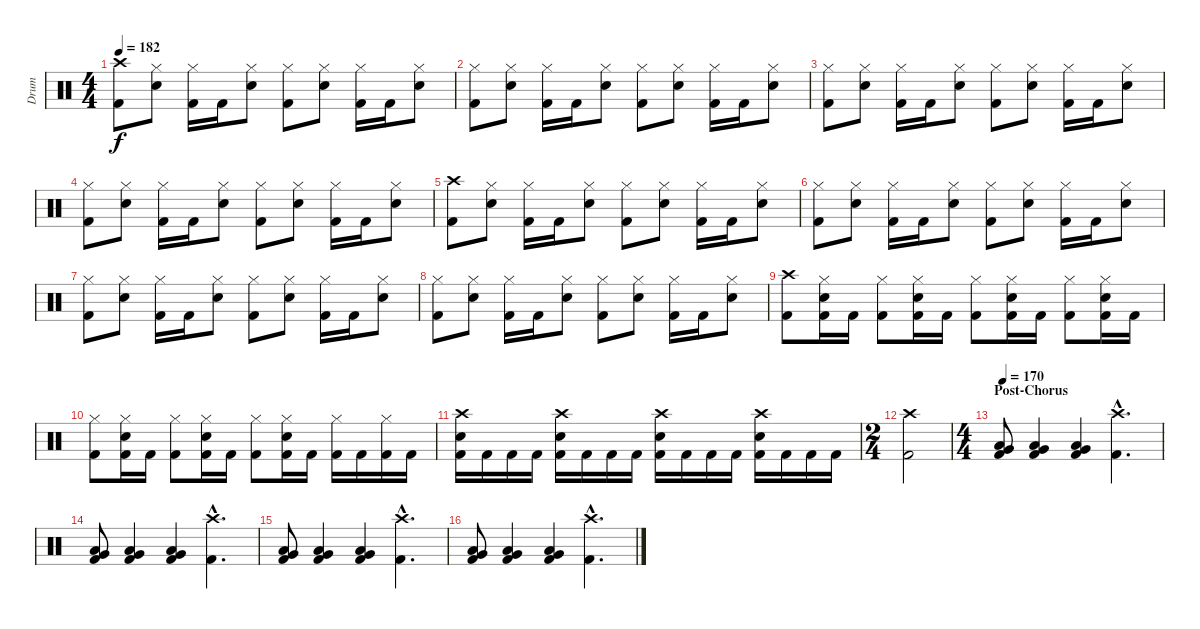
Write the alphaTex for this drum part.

\track ("Drum" "Drum") {instrument percussion}
\staff {score}
\articulation defaults
\ts (4 4)
\tempo 182
\clef neutral
\ks c
("Crash high (hit)" "Kick (hit) 2").8{dy f} ("Hi-Hat (closed)" "Electric Snare (hit)").8 ("Hi-Hat (closed)" "Kick (hit) 2").16 "Kick (hit) 2".16 ("Hi-Hat (closed)" "Electric Snare (hit)").8 ("Hi-Hat (closed)" "Kick (hit) 2").8 ("Hi-Hat (closed)" "Electric Snare (hit)").8 ("Hi-Hat (closed)" "Kick (hit) 2").16 "Kick (hit) 2".16 ("Hi-Hat (closed)" "Electric Snare (hit)").8 |
("Hi-Hat (closed)" "Kick (hit) 2").8 ("Hi-Hat (closed)" "Electric Snare (hit)").8 ("Hi-Hat (closed)" "Kick (hit) 2").16 "Kick (hit) 2".16 ("Hi-Hat (closed)" "Electric Snare (hit)").8 ("Hi-Hat (closed)" "Kick (hit) 2").8 ("Hi-Hat (closed)" "Electric Snare (hit)").8 ("Hi-Hat (closed)" "Kick (hit) 2").16 "Kick (hit) 2".16 ("Hi-Hat (closed)" "Electric Snare (hit)").8 |
("Hi-Hat (closed)" "Kick (hit) 2").8 ("Hi-Hat (closed)" "Electric Snare (hit)").8 ("Hi-Hat (closed)" "Kick (hit) 2").16 "Kick (hit) 2".16 ("Hi-Hat (closed)" "Electric Snare (hit)").8 ("Hi-Hat (closed)" "Kick (hit) 2").8 ("Hi-Hat (closed)" "Electric Snare (hit)").8 ("Hi-Hat (closed)" "Kick (hit) 2").16 "Kick (hit) 2".16 ("Hi-Hat (closed)" "Electric Snare (hit)").8 |
("Hi-Hat (closed)" "Kick (hit) 2").8 ("Hi-Hat (closed)" "Electric Snare (hit)").8 ("Hi-Hat (closed)" "Kick (hit) 2").16 "Kick (hit) 2".16 ("Hi-Hat (closed)" "Electric Snare (hit)").8 ("Hi-Hat (closed)" "Kick (hit) 2").8 ("Hi-Hat (closed)" "Electric Snare (hit)").8 ("Hi-Hat (closed)" "Kick (hit) 2").16 "Kick (hit) 2".16 ("Hi-Hat (closed)" "Electric Snare (hit)").8 |
("Crash high (hit)" "Kick (hit) 2").8 ("Hi-Hat (closed)" "Electric Snare (hit)").8 ("Hi-Hat (closed)" "Kick (hit) 2").16 "Kick (hit) 2".16 ("Hi-Hat (closed)" "Electric Snare (hit)").8 ("Hi-Hat (closed)" "Kick (hit) 2").8 ("Hi-Hat (closed)" "Electric Snare (hit)").8 ("Hi-Hat (closed)" "Kick (hit) 2").16 "Kick (hit) 2".16 ("Hi-Hat (closed)" "Electric Snare (hit)").8 |
("Hi-Hat (closed)" "Kick (hit) 2").8 ("Hi-Hat (closed)" "Electric Snare (hit)").8 ("Hi-Hat (closed)" "Kick (hit) 2").16 "Kick (hit) 2".16 ("Hi-Hat (closed)" "Electric Snare (hit)").8 ("Hi-Hat (closed)" "Kick (hit) 2").8 ("Hi-Hat (closed)" "Electric Snare (hit)").8 ("Hi-Hat (closed)" "Kick (hit) 2").16 "Kick (hit) 2".16 ("Hi-Hat (closed)" "Electric Snare (hit)").8 |
("Hi-Hat (closed)" "Kick (hit) 2").8 ("Hi-Hat (closed)" "Electric Snare (hit)").8 ("Hi-Hat (closed)" "Kick (hit) 2").16 "Kick (hit) 2".16 ("Hi-Hat (closed)" "Electric Snare (hit)").8 ("Hi-Hat (closed)" "Kick (hit) 2").8 ("Hi-Hat (closed)" "Electric Snare (hit)").8 ("Hi-Hat (closed)" "Kick (hit) 2").16 "Kick (hit) 2".16 ("Hi-Hat (closed)" "Electric Snare (hit)").8 |
("Hi-Hat (closed)" "Kick (hit) 2").8 ("Hi-Hat (closed)" "Electric Snare (hit)").8 ("Hi-Hat (closed)" "Kick (hit) 2").16 "Kick (hit) 2".16 ("Hi-Hat (closed)" "Electric Snare (hit)").8 ("Hi-Hat (closed)" "Kick (hit) 2").8 ("Hi-Hat (closed)" "Electric Snare (hit)").8 ("Hi-Hat (closed)" "Kick (hit) 2").16 "Kick (hit) 2".16 ("Hi-Hat (closed)" "Electric Snare (hit)").8 |
("Crash high (hit)" "Kick (hit) 2").8 ("Hi-Hat (closed)" "Electric Snare (hit)" "Kick (hit) 2").16 "Kick (hit) 2".16 ("Hi-Hat (closed)" "Kick (hit) 2").8 ("Hi-Hat (closed)" "Electric Snare (hit)" "Kick (hit) 2").16 "Kick (hit) 2".16 ("Hi-Hat (closed)" "Kick (hit) 2").8 ("Hi-Hat (closed)" "Electric Snare (hit)" "Kick (hit) 2").16 "Kick (hit) 2".16 ("Hi-Hat (closed)" "Kick (hit) 2").8 ("Hi-Hat (closed)" "Electric Snare (hit)" "Kick (hit) 2").16 "Kick (hit) 2".16 |
("Hi-Hat (closed)" "Kick (hit) 2").8 ("Hi-Hat (closed)" "Electric Snare (hit)" "Kick (hit) 2").16 "Kick (hit) 2".16 ("Hi-Hat (closed)" "Kick (hit) 2").8 ("Hi-Hat (closed)" "Electric Snare (hit)" "Kick (hit) 2").16 "Kick (hit) 2".16 ("Hi-Hat (closed)" "Kick (hit) 2").8 ("Hi-Hat (closed)" "Electric Snare (hit)" "Kick (hit) 2").16 "Kick (hit) 2".16 ("Hi-Hat (closed)" "Kick (hit) 2").16 "Kick (hit) 2".16 ("Hi-Hat (closed)" "Kick (hit) 2").16 "Kick (hit) 2".16 |
("Crash high (hit)" "Electric Snare (hit)" "Kick (hit) 2").16 "Kick (hit) 2".16 "Kick (hit) 2".16 "Kick (hit) 2".16 ("Crash high (hit)" "Electric Snare (hit)" "Kick (hit) 2").16 "Kick (hit) 2".16 "Kick (hit) 2".16 "Kick (hit) 2".16 ("Crash high (hit)" "Electric Snare (hit)" "Kick (hit) 2").16 "Kick (hit) 2".16 "Kick (hit) 2".16 "Kick (hit) 2".16 ("Crash high (hit)" "Electric Snare (hit)" "Kick (hit) 2").16 "Kick (hit) 2".16 "Kick (hit) 2".16 "Kick (hit) 2".16 |
\ts (2 4)
("Crash high (hit)" "Kick (hit) 2").2 |
\ts (4 4)
\section ("" "Post-Chorus")
\tempo 170
("Very Low Tom (hit)" "Low Tom (hit)" "Kick (hit) 2").8 ("Very Low Tom (hit)" "Low Tom (hit)" "Kick (hit) 2").4 ("Very Low Tom (hit)" "Low Tom (hit)" "Kick (hit) 2").4 ("Crash high (hit)"{hac} "Kick (hit) 2"{hac}).4{d} |
("Very Low Tom (hit)" "Low Tom (hit)" "Kick (hit) 2").8 ("Very Low Tom (hit)" "Low Tom (hit)" "Kick (hit) 2").4 ("Very Low Tom (hit)" "Low Tom (hit)" "Kick (hit) 2").4 ("Crash high (hit)"{hac} "Kick (hit) 2"{hac}).4{d} |
("Very Low Tom (hit)" "Low Tom (hit)" "Kick (hit) 2").8 ("Very Low Tom (hit)" "Low Tom (hit)" "Kick (hit) 2").4 ("Very Low Tom (hit)" "Low Tom (hit)" "Kick (hit) 2").4 ("Crash high (hit)"{hac} "Kick (hit) 2"{hac}).4{d} |
("Very Low Tom (hit)" "Low Tom (hit)" "Kick (hit) 2").8 ("Very Low Tom (hit)" "Low Tom (hit)" "Kick (hit) 2").4 ("Very Low Tom (hit)" "Low Tom (hit)" "Kick (hit) 2").4 ("Crash high (hit)"{hac} "Kick (hit) 2"{hac}).4{d}
